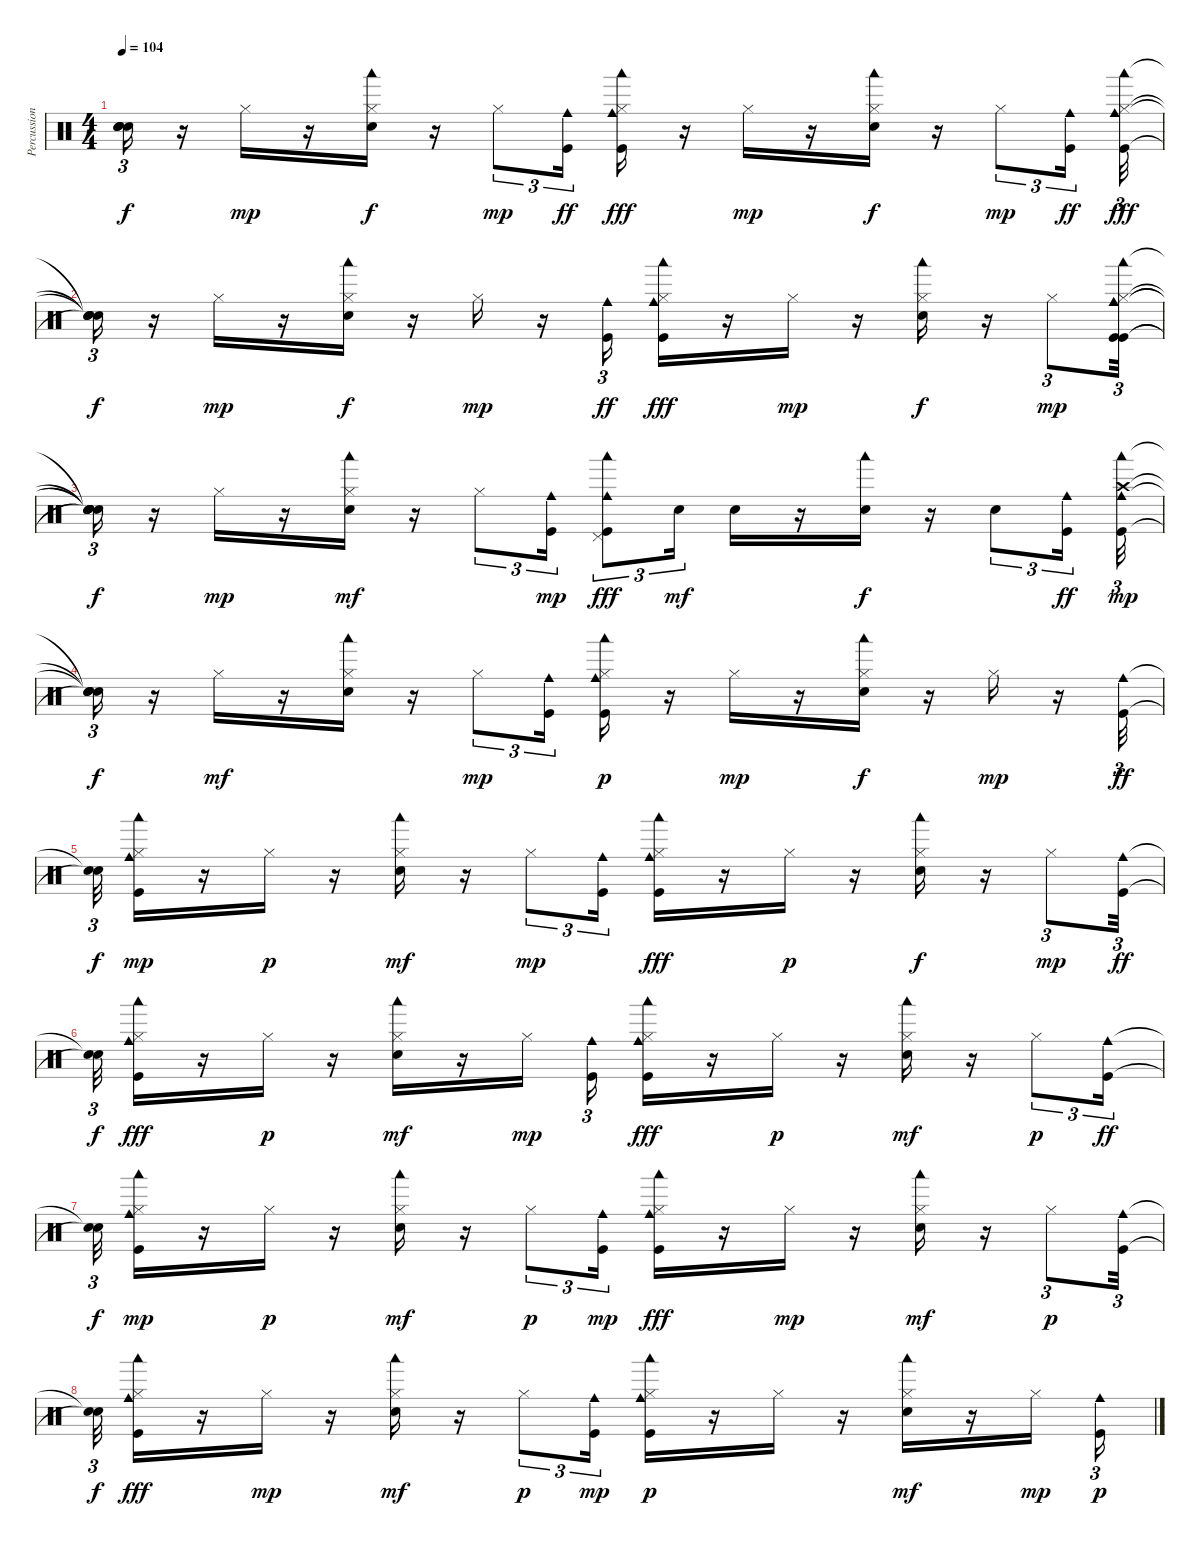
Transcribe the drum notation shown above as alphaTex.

\track ("Percussions (drums + hihats)" "Percussion") {instrument percussion}
\staff {score}
\articulation defaults
\ts (4 4)
\tempo 104
\clef neutral
\ks c
("Snare (hit)"{t} "Snare (hit)"{t} "Snare (hit)"{t} "Snare (hit)"{t}).16{tu (3 2) dy f} r.16 "Hi-Hat (closed)".16{dy mp} r.16 ("Hi-Hat (closed)" "Woodblock low (hit)" "Electric Snare (hit)").16{dy f} r.16 "Hi-Hat (closed)".8{tu (3 2) dy mp} ("Cowbell medium (hit)" "Kick (hit)").16{tu (3 2) dy ff} ("Cowbell medium (hit)" "Hi-Hat (closed)" "Woodblock low (hit)" "Kick (hit)").16{dy fff} r.16 "Hi-Hat (closed)".16{dy mp} r.16 ("Woodblock low (hit)" "Electric Snare (hit)" "Hi-Hat (closed)").16{dy f} r.16 "Hi-Hat (closed)".8{tu (3 2) dy mp} ("Cowbell medium (hit)" "Kick (hit)").16{tu (3 2) dy ff} ("Hi-Hat (closed)" "Cowbell medium (hit)" "Woodblock low (hit)" "Kick (hit)").32{tu (3 2) dy fff} |
("Snare (hit)"{t} "Snare (hit)"{t} "Snare (hit)"{t} "Snare (hit)"{t}).16{tu (3 2) dy f} r.16 "Hi-Hat (closed)".16{dy mp} r.16 ("Electric Snare (hit)" "Hi-Hat (closed)" "Woodblock low (hit)").16{dy f} r.16 "Hi-Hat (closed)".16{dy mp} r.16 ("Cowbell medium (hit)" "Kick (hit)").16{tu (3 2) dy ff} ("Hi-Hat (closed)" "Cowbell medium (hit)" "Woodblock low (hit)" "Kick (hit)").16{dy fff} r.16 "Hi-Hat (closed)".16{dy mp} r.16 ("Electric Snare (hit)" "Woodblock low (hit)" "Hi-Hat (closed)").16{dy f} r.16 "Hi-Hat (closed)".8{tu (3 2) dy mp} ("Cowbell medium (hit)" "Kick (hit)" "Kick (hit)" "Hi-Hat (closed)" "Cowbell medium (hit)" "Woodblock low (hit)").32{tu (3 2)} |
("Snare (hit)"{t} "Snare (hit)"{t} "Snare (hit)"{t} "Snare (hit)"{t} "Snare (hit)"{t} "Snare (hit)"{t}).16{tu (3 2) dy f} r.16 "Hi-Hat (closed)".16{dy mp} r.16 ("Woodblock low (hit)" "Electric Snare (hit)" "Hi-Hat (closed)").16{dy mf} r.16 "Hi-Hat (closed)".8{tu (3 2)} ("Kick (hit)" "Cowbell medium (hit)").16{tu (3 2) dy mp} ("Cowbell medium (hit)" "Kick (hit)" "Woodblock low (hit)" "Pedal Hi-Hat (hit)").8{tu (3 2) dy fff} "Electric Snare (hit)".16{tu (3 2) dy mf} "Electric Snare (hit)".16 r.16 ("Electric Snare (hit)" "Woodblock low (hit)").16{dy f} r.16 "Electric Snare (hit)".8{tu (3 2)} ("Cowbell medium (hit)" "Kick (hit)").16{tu (3 2) dy ff} ("Cowbell medium (hit)" "Woodblock low (hit)" "Kick (hit)" "Crash high (hit)").32{tu (3 2) dy mp} |
("Snare (hit)"{t} "Snare (hit)"{t} "Snare (hit)"{t} "Snare (hit)"{t}).16{tu (3 2) dy f} r.16 "Hi-Hat (closed)".16{dy mf} r.16 ("Electric Snare (hit)" "Woodblock low (hit)" "Hi-Hat (closed)").16 r.16 "Hi-Hat (closed)".8{tu (3 2) dy mp} ("Kick (hit)" "Cowbell medium (hit)").16{tu (3 2)} ("Woodblock low (hit)" "Hi-Hat (closed)" "Kick (hit)" "Cowbell medium (hit)").16{dy p} r.16 "Hi-Hat (closed)".16{dy mp} r.16 ("Electric Snare (hit)" "Woodblock low (hit)" "Hi-Hat (closed)").16{dy f} r.16 "Hi-Hat (closed)".16{dy mp} r.16 ("Cowbell medium (hit)" "Kick (hit)").32{tu (3 2) dy ff} |
("Snare (hit)"{t} "Snare (hit)"{t}).32{tu (3 2) dy f} ("Kick (hit)" "Cowbell medium (hit)" "Woodblock low (hit)" "Hi-Hat (closed)").16{dy mp} r.16 "Hi-Hat (closed)".16{dy p} r.16 ("Hi-Hat (closed)" "Woodblock low (hit)" "Electric Snare (hit)").16{dy mf} r.16 "Hi-Hat (closed)".8{tu (3 2) dy mp} ("Kick (hit)" "Cowbell medium (hit)").16{tu (3 2)} ("Woodblock low (hit)" "Hi-Hat (closed)" "Cowbell medium (hit)" "Kick (hit)").16{dy fff} r.16 "Hi-Hat (closed)".16{dy p} r.16 ("Electric Snare (hit)" "Woodblock low (hit)" "Hi-Hat (closed)").16{dy f} r.16 "Hi-Hat (closed)".8{tu (3 2) dy mp} ("Cowbell medium (hit)" "Kick (hit)").32{tu (3 2) dy ff} |
("Snare (hit)"{t} "Snare (hit)"{t}).32{tu (3 2) dy f} ("Cowbell medium (hit)" "Hi-Hat (closed)" "Kick (hit)" "Woodblock low (hit)").16{dy fff} r.16 "Hi-Hat (closed)".16{dy p} r.16 ("Electric Snare (hit)" "Hi-Hat (closed)" "Woodblock low (hit)").16{dy mf} r.16 "Hi-Hat (closed)".16{dy mp} ("Kick (hit)" "Cowbell medium (hit)").16{tu (3 2)} ("Hi-Hat (closed)" "Cowbell medium (hit)" "Woodblock low (hit)" "Kick (hit)").16{dy fff} r.16 "Hi-Hat (closed)".16{dy p} r.16 ("Woodblock low (hit)" "Electric Snare (hit)" "Hi-Hat (closed)").16{dy mf} r.16 "Hi-Hat (closed)".8{tu (3 2) dy p} ("Cowbell medium (hit)" "Kick (hit)").16{tu (3 2) dy ff} |
("Snare (hit)"{t} "Snare (hit)"{t}).32{tu (3 2) dy f} ("Kick (hit)" "Hi-Hat (closed)" "Woodblock low (hit)" "Cowbell medium (hit)").16{dy mp} r.16 "Hi-Hat (closed)".16{dy p} r.16 ("Electric Snare (hit)" "Woodblock low (hit)" "Hi-Hat (closed)").16{dy mf} r.16 "Hi-Hat (closed)".8{tu (3 2) dy p} ("Kick (hit)" "Cowbell medium (hit)").16{tu (3 2) dy mp} ("Cowbell medium (hit)" "Hi-Hat (closed)" "Kick (hit)" "Woodblock low (hit)").16{dy fff} r.16 "Hi-Hat (closed)".16{dy mp} r.16 ("Electric Snare (hit)" "Woodblock low (hit)" "Hi-Hat (closed)").16{dy mf} r.16 "Hi-Hat (closed)".8{tu (3 2) dy p} ("Kick (hit)" "Cowbell medium (hit)").32{tu (3 2)} |
("Snare (hit)"{t} "Snare (hit)"{t}).32{tu (3 2) dy f} ("Hi-Hat (closed)" "Woodblock low (hit)" "Cowbell medium (hit)" "Kick (hit)").16{dy fff} r.16 "Hi-Hat (closed)".16{dy mp} r.16 ("Woodblock low (hit)" "Electric Snare (hit)" "Hi-Hat (closed)").16{dy mf} r.16 "Hi-Hat (closed)".8{tu (3 2) dy p} ("Kick (hit)" "Cowbell medium (hit)").16{tu (3 2) dy mp} ("Hi-Hat (closed)" "Kick (hit)" "Woodblock low (hit)" "Cowbell medium (hit)").16{dy p} r.16 "Hi-Hat (closed)".16 r.16 ("Hi-Hat (closed)" "Woodblock low (hit)" "Electric Snare (hit)").16{dy mf} r.16 "Hi-Hat (closed)".16{dy mp} ("Kick (hit)" "Cowbell medium (hit)").16{tu (3 2) dy p}
